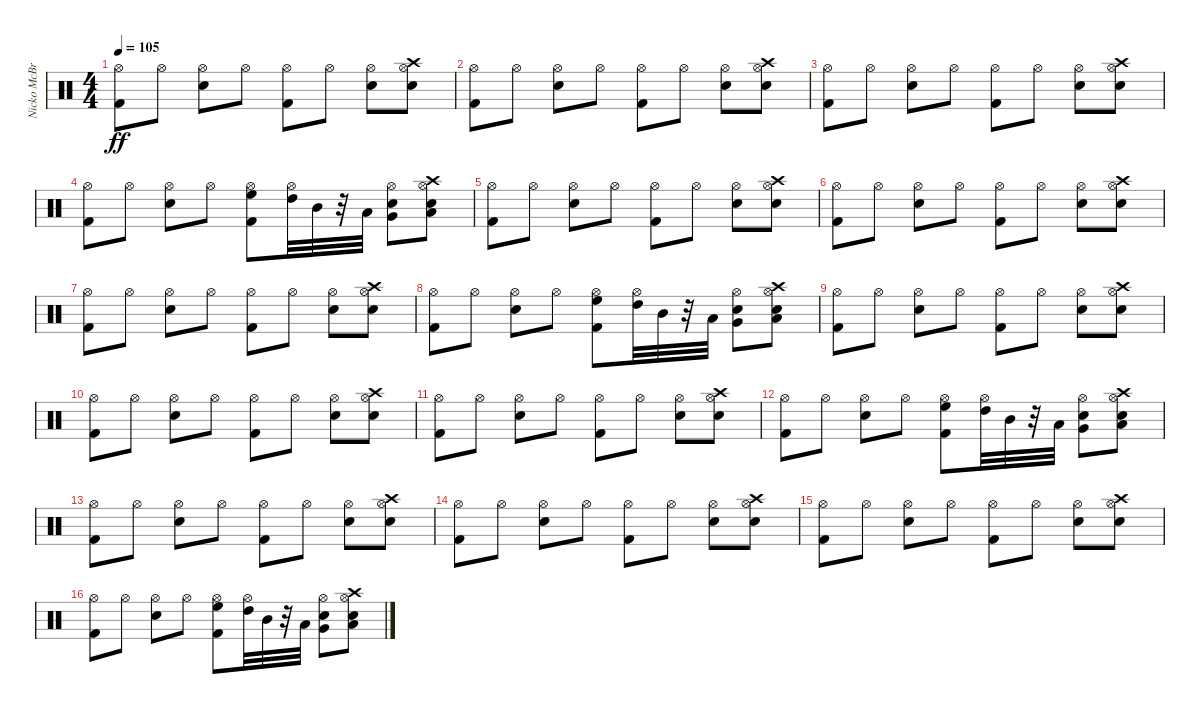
\track ("Nicko McBrain" "Nicko McBr") {instrument percussion}
\staff {score}
\articulation defaults
\ts (4 4)
\tempo 105
\clef neutral
\ks c
("Kick (hit) 2" "Hi-Hat (open)").8{dy ff} "Hi-Hat (open)".8 ("Snare (hit) 2" "Hi-Hat (open)").8 "Hi-Hat (open)".8 ("Kick (hit) 2" "Hi-Hat (open)").8 "Hi-Hat (open)".8 ("Snare (hit) 2" "Hi-Hat (open)").8 ("Snare (hit) 2" "Hi-Hat (open)" "Crash high (hit)").8 |
("Kick (hit) 2" "Hi-Hat (open)").8 "Hi-Hat (open)".8 ("Snare (hit) 2" "Hi-Hat (open)").8 "Hi-Hat (open)".8 ("Kick (hit) 2" "Hi-Hat (open)").8 "Hi-Hat (open)".8 ("Snare (hit) 2" "Hi-Hat (open)").8 ("Snare (hit) 2" "Hi-Hat (open)" "Crash high (hit)").8 |
("Kick (hit) 2" "Hi-Hat (open)").8 "Hi-Hat (open)".8 ("Snare (hit) 2" "Hi-Hat (open)").8 "Hi-Hat (open)".8 ("Kick (hit) 2" "Hi-Hat (open)").8 "Hi-Hat (open)".8 ("Snare (hit) 2" "Hi-Hat (open)").8 ("Snare (hit) 2" "Hi-Hat (open)" "Crash high (hit)").8 |
("Kick (hit) 2" "Hi-Hat (open)").8 "Hi-Hat (open)".8 ("Snare (hit) 2" "Hi-Hat (open)").8 "Hi-Hat (open)".8 ("Kick (hit) 2" "Hi-Hat (open)" "High Floor Tom (hit)").8 ("Hi-Hat (open)" "High Tom (hit)").32 "Mid Tom (hit)".32 r.32 "Low Tom (hit)".32 ("Snare (hit) 2" "Very Low Tom (hit)" "Hi-Hat (open)").8 ("Snare (hit) 2" "Low Floor Tom (hit)" "Hi-Hat (open)" "Crash high (hit)").8 |
("Kick (hit) 2" "Hi-Hat (open)").8 "Hi-Hat (open)".8 ("Snare (hit) 2" "Hi-Hat (open)").8 "Hi-Hat (open)".8 ("Kick (hit) 2" "Hi-Hat (open)").8 "Hi-Hat (open)".8 ("Snare (hit) 2" "Hi-Hat (open)").8 ("Snare (hit) 2" "Hi-Hat (open)" "Crash high (hit)").8 |
("Kick (hit) 2" "Hi-Hat (open)").8 "Hi-Hat (open)".8 ("Snare (hit) 2" "Hi-Hat (open)").8 "Hi-Hat (open)".8 ("Kick (hit) 2" "Hi-Hat (open)").8 "Hi-Hat (open)".8 ("Snare (hit) 2" "Hi-Hat (open)").8 ("Snare (hit) 2" "Hi-Hat (open)" "Crash high (hit)").8 |
("Kick (hit) 2" "Hi-Hat (open)").8 "Hi-Hat (open)".8 ("Snare (hit) 2" "Hi-Hat (open)").8 "Hi-Hat (open)".8 ("Kick (hit) 2" "Hi-Hat (open)").8 "Hi-Hat (open)".8 ("Snare (hit) 2" "Hi-Hat (open)").8 ("Snare (hit) 2" "Hi-Hat (open)" "Crash high (hit)").8 |
("Kick (hit) 2" "Hi-Hat (open)").8 "Hi-Hat (open)".8 ("Snare (hit) 2" "Hi-Hat (open)").8 "Hi-Hat (open)".8 ("Kick (hit) 2" "Hi-Hat (open)" "High Floor Tom (hit)").8 ("Hi-Hat (open)" "High Tom (hit)").32 "Mid Tom (hit)".32 r.32 "Low Tom (hit)".32 ("Snare (hit) 2" "Very Low Tom (hit)" "Hi-Hat (open)").8 ("Snare (hit) 2" "Low Floor Tom (hit)" "Hi-Hat (open)" "Crash high (hit)").8 |
("Kick (hit) 2" "Hi-Hat (open)").8 "Hi-Hat (open)".8 ("Snare (hit) 2" "Hi-Hat (open)").8 "Hi-Hat (open)".8 ("Kick (hit) 2" "Hi-Hat (open)").8 "Hi-Hat (open)".8 ("Snare (hit) 2" "Hi-Hat (open)").8 ("Snare (hit) 2" "Hi-Hat (open)" "Crash high (hit)").8 |
("Kick (hit) 2" "Hi-Hat (open)").8 "Hi-Hat (open)".8 ("Snare (hit) 2" "Hi-Hat (open)").8 "Hi-Hat (open)".8 ("Kick (hit) 2" "Hi-Hat (open)").8 "Hi-Hat (open)".8 ("Snare (hit) 2" "Hi-Hat (open)").8 ("Snare (hit) 2" "Hi-Hat (open)" "Crash high (hit)").8 |
("Kick (hit) 2" "Hi-Hat (open)").8 "Hi-Hat (open)".8 ("Snare (hit) 2" "Hi-Hat (open)").8 "Hi-Hat (open)".8 ("Kick (hit) 2" "Hi-Hat (open)").8 "Hi-Hat (open)".8 ("Snare (hit) 2" "Hi-Hat (open)").8 ("Snare (hit) 2" "Hi-Hat (open)" "Crash high (hit)").8 |
("Kick (hit) 2" "Hi-Hat (open)").8 "Hi-Hat (open)".8 ("Snare (hit) 2" "Hi-Hat (open)").8 "Hi-Hat (open)".8 ("Kick (hit) 2" "Hi-Hat (open)" "High Floor Tom (hit)").8 ("Hi-Hat (open)" "High Tom (hit)").32 "Mid Tom (hit)".32 r.32 "Low Tom (hit)".32 ("Snare (hit) 2" "Very Low Tom (hit)" "Hi-Hat (open)").8 ("Snare (hit) 2" "Low Floor Tom (hit)" "Hi-Hat (open)" "Crash high (hit)").8 |
("Kick (hit) 2" "Hi-Hat (open)").8 "Hi-Hat (open)".8 ("Snare (hit) 2" "Hi-Hat (open)").8 "Hi-Hat (open)".8 ("Kick (hit) 2" "Hi-Hat (open)").8 "Hi-Hat (open)".8 ("Snare (hit) 2" "Hi-Hat (open)").8 ("Snare (hit) 2" "Hi-Hat (open)" "Crash high (hit)").8 |
("Kick (hit) 2" "Hi-Hat (open)").8 "Hi-Hat (open)".8 ("Snare (hit) 2" "Hi-Hat (open)").8 "Hi-Hat (open)".8 ("Kick (hit) 2" "Hi-Hat (open)").8 "Hi-Hat (open)".8 ("Snare (hit) 2" "Hi-Hat (open)").8 ("Snare (hit) 2" "Hi-Hat (open)" "Crash high (hit)").8 |
("Kick (hit) 2" "Hi-Hat (open)").8 "Hi-Hat (open)".8 ("Snare (hit) 2" "Hi-Hat (open)").8 "Hi-Hat (open)".8 ("Kick (hit) 2" "Hi-Hat (open)").8 "Hi-Hat (open)".8 ("Snare (hit) 2" "Hi-Hat (open)").8 ("Snare (hit) 2" "Hi-Hat (open)" "Crash high (hit)").8 |
("Kick (hit) 2" "Hi-Hat (open)").8 "Hi-Hat (open)".8 ("Snare (hit) 2" "Hi-Hat (open)").8 "Hi-Hat (open)".8 ("Kick (hit) 2" "Hi-Hat (open)" "High Floor Tom (hit)").8 ("Hi-Hat (open)" "High Tom (hit)").32 "Mid Tom (hit)".32 r.32 "Low Tom (hit)".32 ("Snare (hit) 2" "Very Low Tom (hit)" "Hi-Hat (open)").8 ("Snare (hit) 2" "Low Floor Tom (hit)" "Hi-Hat (open)" "Crash high (hit)").8
